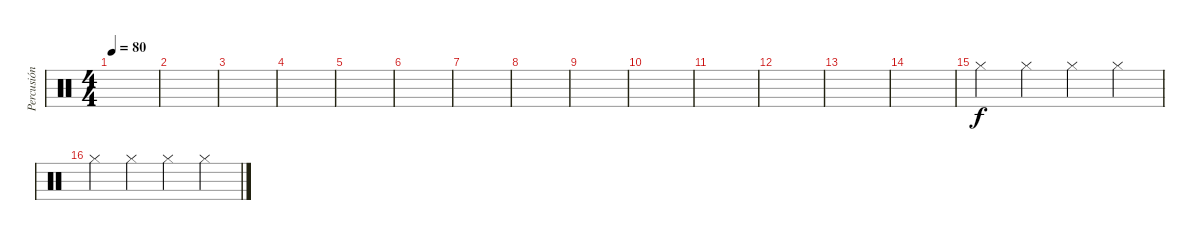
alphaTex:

\track ("Percusión" "Percusión") {instrument percussion}
\staff {score}
\articulation defaults
\ts (4 4)
\tempo 80
\clef neutral
\ks c
|
|
|
|
|
|
|
|
|
|
|
|
|
|
"Hi-Hat (closed)".4 "Hi-Hat (closed)".4 "Hi-Hat (closed)".4 "Hi-Hat (closed)".4 |
"Hi-Hat (closed)".4 "Hi-Hat (closed)".4 "Hi-Hat (closed)".4 "Hi-Hat (closed)".4
